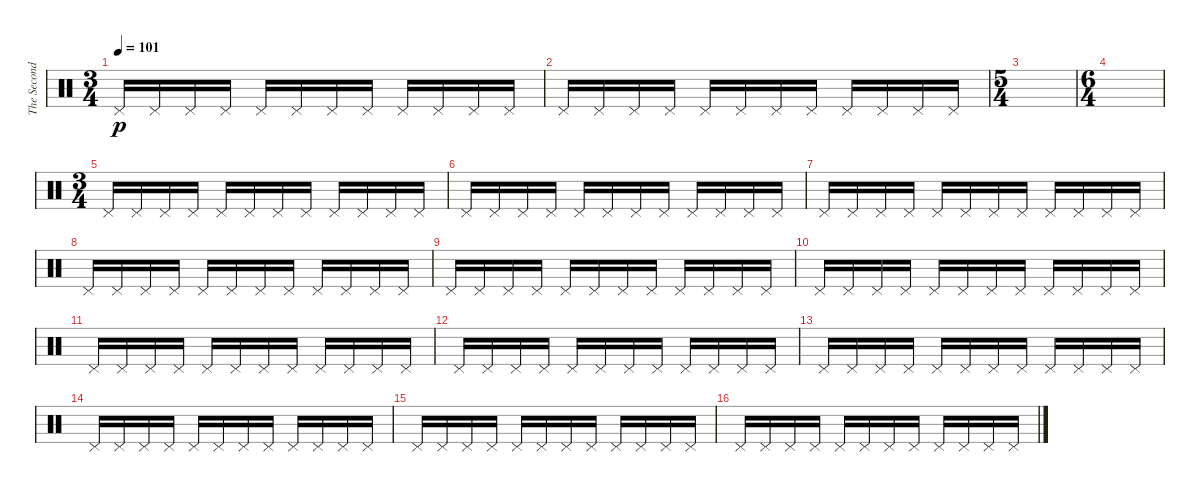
\track ("The Second Drummer" "The Second") {instrument percussion}
\staff {score}
\articulation defaults
\ts (3 4)
\tempo 101
\clef neutral
\ks c "Pedal Hi-Hat (hit)".16{dy p} "Pedal Hi-Hat (hit)".16 "Pedal Hi-Hat (hit)".16 "Pedal Hi-Hat (hit)".16 "Pedal Hi-Hat (hit)".16 "Pedal Hi-Hat (hit)".16 "Pedal Hi-Hat (hit)".16 "Pedal Hi-Hat (hit)".16 "Pedal Hi-Hat (hit)".16 "Pedal Hi-Hat (hit)".16 "Pedal Hi-Hat (hit)".16 "Pedal Hi-Hat (hit)".16
|
"Pedal Hi-Hat (hit)".16 "Pedal Hi-Hat (hit)".16 "Pedal Hi-Hat (hit)".16 "Pedal Hi-Hat (hit)".16 "Pedal Hi-Hat (hit)".16 "Pedal Hi-Hat (hit)".16 "Pedal Hi-Hat (hit)".16 "Pedal Hi-Hat (hit)".16 "Pedal Hi-Hat (hit)".16 "Pedal Hi-Hat (hit)".16 "Pedal Hi-Hat (hit)".16 "Pedal Hi-Hat (hit)".16 |
\ts (5 4)
|
\ts (6 4)
|
\ts (3 4)
"Pedal Hi-Hat (hit)".16 "Pedal Hi-Hat (hit)".16 "Pedal Hi-Hat (hit)".16 "Pedal Hi-Hat (hit)".16 "Pedal Hi-Hat (hit)".16 "Pedal Hi-Hat (hit)".16 "Pedal Hi-Hat (hit)".16 "Pedal Hi-Hat (hit)".16 "Pedal Hi-Hat (hit)".16 "Pedal Hi-Hat (hit)".16 "Pedal Hi-Hat (hit)".16 "Pedal Hi-Hat (hit)".16 |
"Pedal Hi-Hat (hit)".16 "Pedal Hi-Hat (hit)".16 "Pedal Hi-Hat (hit)".16 "Pedal Hi-Hat (hit)".16 "Pedal Hi-Hat (hit)".16 "Pedal Hi-Hat (hit)".16 "Pedal Hi-Hat (hit)".16 "Pedal Hi-Hat (hit)".16 "Pedal Hi-Hat (hit)".16 "Pedal Hi-Hat (hit)".16 "Pedal Hi-Hat (hit)".16 "Pedal Hi-Hat (hit)".16 |
"Pedal Hi-Hat (hit)".16 "Pedal Hi-Hat (hit)".16 "Pedal Hi-Hat (hit)".16 "Pedal Hi-Hat (hit)".16 "Pedal Hi-Hat (hit)".16 "Pedal Hi-Hat (hit)".16 "Pedal Hi-Hat (hit)".16 "Pedal Hi-Hat (hit)".16 "Pedal Hi-Hat (hit)".16 "Pedal Hi-Hat (hit)".16 "Pedal Hi-Hat (hit)".16 "Pedal Hi-Hat (hit)".16 |
"Pedal Hi-Hat (hit)".16 "Pedal Hi-Hat (hit)".16 "Pedal Hi-Hat (hit)".16 "Pedal Hi-Hat (hit)".16 "Pedal Hi-Hat (hit)".16 "Pedal Hi-Hat (hit)".16 "Pedal Hi-Hat (hit)".16 "Pedal Hi-Hat (hit)".16 "Pedal Hi-Hat (hit)".16 "Pedal Hi-Hat (hit)".16 "Pedal Hi-Hat (hit)".16 "Pedal Hi-Hat (hit)".16 |
"Pedal Hi-Hat (hit)".16 "Pedal Hi-Hat (hit)".16 "Pedal Hi-Hat (hit)".16 "Pedal Hi-Hat (hit)".16 "Pedal Hi-Hat (hit)".16 "Pedal Hi-Hat (hit)".16 "Pedal Hi-Hat (hit)".16 "Pedal Hi-Hat (hit)".16 "Pedal Hi-Hat (hit)".16 "Pedal Hi-Hat (hit)".16 "Pedal Hi-Hat (hit)".16 "Pedal Hi-Hat (hit)".16 |
"Pedal Hi-Hat (hit)".16 "Pedal Hi-Hat (hit)".16 "Pedal Hi-Hat (hit)".16 "Pedal Hi-Hat (hit)".16 "Pedal Hi-Hat (hit)".16 "Pedal Hi-Hat (hit)".16 "Pedal Hi-Hat (hit)".16 "Pedal Hi-Hat (hit)".16 "Pedal Hi-Hat (hit)".16 "Pedal Hi-Hat (hit)".16 "Pedal Hi-Hat (hit)".16 "Pedal Hi-Hat (hit)".16 |
"Pedal Hi-Hat (hit)".16 "Pedal Hi-Hat (hit)".16 "Pedal Hi-Hat (hit)".16 "Pedal Hi-Hat (hit)".16 "Pedal Hi-Hat (hit)".16 "Pedal Hi-Hat (hit)".16 "Pedal Hi-Hat (hit)".16 "Pedal Hi-Hat (hit)".16 "Pedal Hi-Hat (hit)".16 "Pedal Hi-Hat (hit)".16 "Pedal Hi-Hat (hit)".16 "Pedal Hi-Hat (hit)".16 |
"Pedal Hi-Hat (hit)".16 "Pedal Hi-Hat (hit)".16 "Pedal Hi-Hat (hit)".16 "Pedal Hi-Hat (hit)".16 "Pedal Hi-Hat (hit)".16 "Pedal Hi-Hat (hit)".16 "Pedal Hi-Hat (hit)".16 "Pedal Hi-Hat (hit)".16 "Pedal Hi-Hat (hit)".16 "Pedal Hi-Hat (hit)".16 "Pedal Hi-Hat (hit)".16 "Pedal Hi-Hat (hit)".16 |
"Pedal Hi-Hat (hit)".16 "Pedal Hi-Hat (hit)".16 "Pedal Hi-Hat (hit)".16 "Pedal Hi-Hat (hit)".16 "Pedal Hi-Hat (hit)".16 "Pedal Hi-Hat (hit)".16 "Pedal Hi-Hat (hit)".16 "Pedal Hi-Hat (hit)".16 "Pedal Hi-Hat (hit)".16 "Pedal Hi-Hat (hit)".16 "Pedal Hi-Hat (hit)".16 "Pedal Hi-Hat (hit)".16 |
"Pedal Hi-Hat (hit)".16 "Pedal Hi-Hat (hit)".16 "Pedal Hi-Hat (hit)".16 "Pedal Hi-Hat (hit)".16 "Pedal Hi-Hat (hit)".16 "Pedal Hi-Hat (hit)".16 "Pedal Hi-Hat (hit)".16 "Pedal Hi-Hat (hit)".16 "Pedal Hi-Hat (hit)".16 "Pedal Hi-Hat (hit)".16 "Pedal Hi-Hat (hit)".16 "Pedal Hi-Hat (hit)".16 |
"Pedal Hi-Hat (hit)".16 "Pedal Hi-Hat (hit)".16 "Pedal Hi-Hat (hit)".16 "Pedal Hi-Hat (hit)".16 "Pedal Hi-Hat (hit)".16 "Pedal Hi-Hat (hit)".16 "Pedal Hi-Hat (hit)".16 "Pedal Hi-Hat (hit)".16 "Pedal Hi-Hat (hit)".16 "Pedal Hi-Hat (hit)".16 "Pedal Hi-Hat (hit)".16 "Pedal Hi-Hat (hit)".16 |
"Pedal Hi-Hat (hit)".16 "Pedal Hi-Hat (hit)".16 "Pedal Hi-Hat (hit)".16 "Pedal Hi-Hat (hit)".16 "Pedal Hi-Hat (hit)".16 "Pedal Hi-Hat (hit)".16 "Pedal Hi-Hat (hit)".16 "Pedal Hi-Hat (hit)".16 "Pedal Hi-Hat (hit)".16 "Pedal Hi-Hat (hit)".16 "Pedal Hi-Hat (hit)".16 "Pedal Hi-Hat (hit)".16
